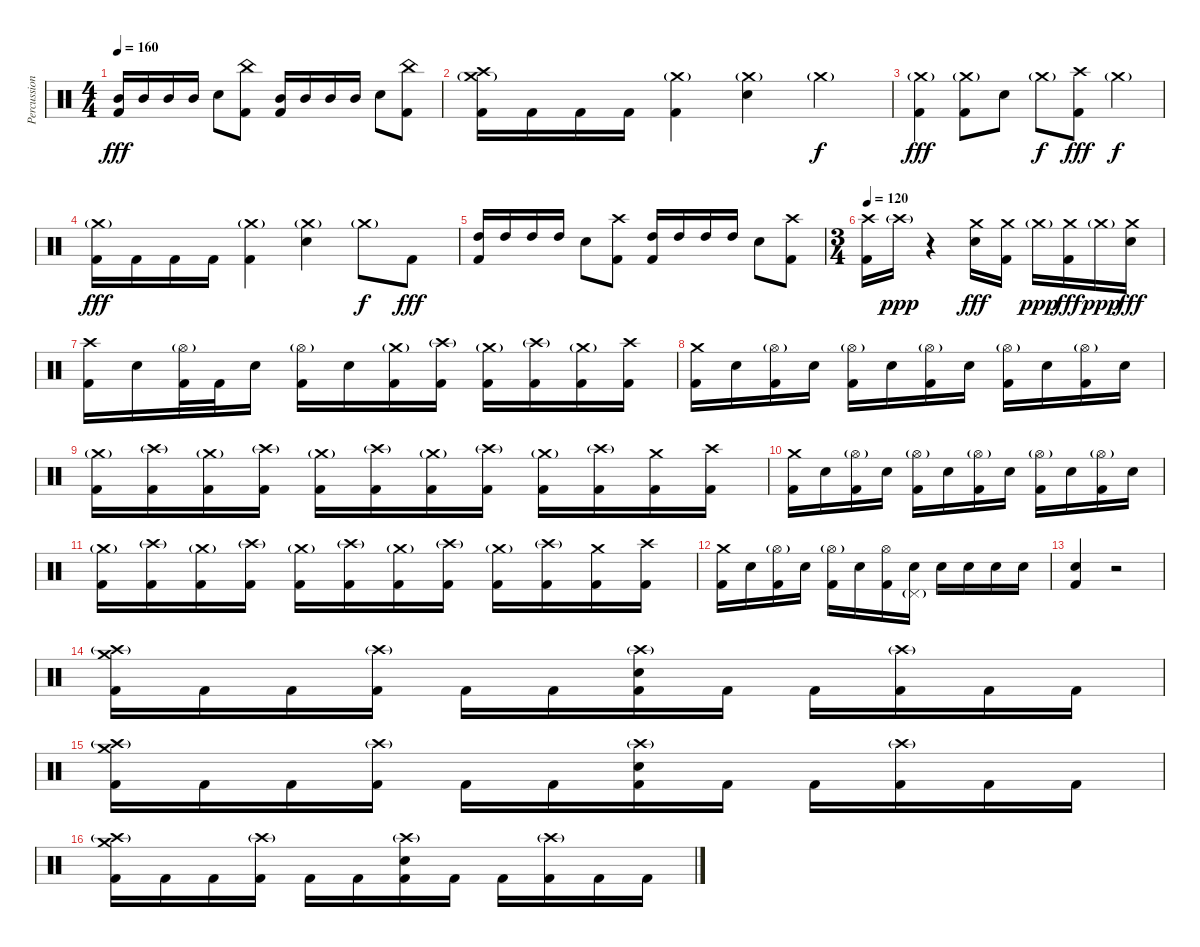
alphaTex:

\track ("Percussion" "Percussion") {instrument percussion}
\staff {score}
\articulation defaults
\ts (4 4)
\tempo 160
\clef neutral
\ks c
("Mid Tom (hit)" "Kick (hit) 2").16{dy fff} "Mid Tom (hit)".16 "Mid Tom (hit)".16 "Mid Tom (hit)".16 "Electric Snare (hit)".8 ("China (hit)" "Kick (hit) 2").8 ("Mid Tom (hit)" "Kick (hit) 2").16 "Mid Tom (hit)".16 "Mid Tom (hit)".16 "Mid Tom (hit)".16 "Electric Snare (hit)".8 ("China (hit)" "Kick (hit) 2").8 |
("Crash medium (hit)"{g} "Crash high (hit)" "Kick (hit) 2").16 "Kick (hit) 2".16 "Kick (hit) 2".16 "Kick (hit) 2".16 ("Crash medium (hit)"{g} "Kick (hit) 2").4 ("Crash medium (hit)"{g} "Electric Snare (hit)").4 "Crash medium (hit)"{g}.4{dy f} |
("Crash medium (hit)"{g} "Kick (hit) 2").4{dy fff} ("Crash medium (hit)"{g} "Kick (hit) 2").8 "Electric Snare (hit)".8 "Crash medium (hit)"{g}.8{dy f} ("Crash high (hit)" "Kick (hit) 2").8{dy fff} "Crash medium (hit)"{g}.4{dy f} |
("Crash medium (hit)"{g} "Kick (hit) 2").16{dy fff} "Kick (hit) 2".16 "Kick (hit) 2".16 "Kick (hit) 2".16 ("Crash medium (hit)"{g} "Kick (hit) 2").4 ("Crash medium (hit)"{g} "Electric Snare (hit)").4 "Crash medium (hit)"{g}.8{dy f} "Kick (hit) 2".8{dy fff} |
("High Tom (hit)" "Kick (hit) 2").16 "High Tom (hit)".16 "High Tom (hit)".16 "High Tom (hit)".16 "Electric Snare (hit)".8 ("Crash high (hit)" "Kick (hit) 2").8 ("High Tom (hit)" "Kick (hit) 2").16 "High Tom (hit)".16 "High Tom (hit)".16 "High Tom (hit)".16 "Electric Snare (hit)".8 ("Crash high (hit)" "Kick (hit) 2").8 |
\ts (3 4)
\tempo 120
("Crash high (hit)" "Kick (hit) 2").16 "Crash high (hit)"{g}.16{dy ppp} r.4 ("Crash medium (hit)" "Electric Snare (hit)").16{dy fff} ("Crash medium (hit)" "Kick (hit) 2").16 "Crash medium (hit)"{g}.16{dy ppp} ("Crash medium (hit)" "Kick (hit) 2").16{dy fff} "Crash medium (hit)"{g}.16{dy ppp} ("Crash medium (hit)" "Electric Snare (hit)").16{dy fff} |
("Crash high (hit)" "Kick (hit) 2").16 "Electric Snare (hit)".16 ("Hi-Hat (open)"{g} "Kick (hit) 2").32 "Kick (hit) 2".32 "Electric Snare (hit)".16 ("Hi-Hat (open)"{g} "Kick (hit) 2").16 "Electric Snare (hit)".16 ("Crash medium (hit)"{g} "Kick (hit) 2").16 ("Crash high (hit)"{g} "Kick (hit) 2").16 ("Crash medium (hit)"{g} "Kick (hit) 2").16 ("Crash high (hit)"{g} "Kick (hit) 2").16 ("Crash medium (hit)"{g} "Kick (hit) 2").16 ("Crash high (hit)" "Kick (hit) 2").16 |
("Crash medium (hit)" "Kick (hit) 2").16 "Electric Snare (hit)".16 ("Hi-Hat (open)"{g} "Kick (hit) 2").16 "Electric Snare (hit)".16 ("Hi-Hat (open)"{g} "Kick (hit) 2").16 "Electric Snare (hit)".16 ("Hi-Hat (open)"{g} "Kick (hit) 2").16 "Electric Snare (hit)".16 ("Hi-Hat (open)"{g} "Kick (hit) 2").16 "Electric Snare (hit)".16 ("Hi-Hat (open)"{g} "Kick (hit) 2").16 "Electric Snare (hit)".16 |
("Crash medium (hit)"{g} "Kick (hit) 2").16 ("Crash high (hit)"{g} "Kick (hit) 2").16 ("Crash medium (hit)"{g} "Kick (hit) 2").16 ("Crash high (hit)"{g} "Kick (hit) 2").16 ("Crash medium (hit)"{g} "Kick (hit) 2").16 ("Crash high (hit)"{g} "Kick (hit) 2").16 ("Crash medium (hit)"{g} "Kick (hit) 2").16 ("Crash high (hit)"{g} "Kick (hit) 2").16 ("Crash medium (hit)"{g} "Kick (hit) 2").16 ("Crash high (hit)"{g} "Kick (hit) 2").16 ("Crash medium (hit)" "Kick (hit) 2").16 ("Crash high (hit)" "Kick (hit) 2").16 |
("Crash medium (hit)" "Kick (hit) 2").16 "Electric Snare (hit)".16 ("Hi-Hat (open)"{g} "Kick (hit) 2").16 "Electric Snare (hit)".16 ("Hi-Hat (open)"{g} "Kick (hit) 2").16 "Electric Snare (hit)".16 ("Hi-Hat (open)"{g} "Kick (hit) 2").16 "Electric Snare (hit)".16 ("Hi-Hat (open)"{g} "Kick (hit) 2").16 "Electric Snare (hit)".16 ("Hi-Hat (open)"{g} "Kick (hit) 2").16 "Electric Snare (hit)".16 |
("Crash medium (hit)"{g} "Kick (hit) 2").16 ("Crash high (hit)"{g} "Kick (hit) 2").16 ("Crash medium (hit)"{g} "Kick (hit) 2").16 ("Crash high (hit)"{g} "Kick (hit) 2").16 ("Crash medium (hit)"{g} "Kick (hit) 2").16 ("Crash high (hit)"{g} "Kick (hit) 2").16 ("Crash medium (hit)"{g} "Kick (hit) 2").16 ("Crash high (hit)"{g} "Kick (hit) 2").16 ("Crash medium (hit)"{g} "Kick (hit) 2").16 ("Crash high (hit)"{g} "Kick (hit) 2").16 ("Crash medium (hit)" "Kick (hit) 2").16 ("Crash high (hit)" "Kick (hit) 2").16 |
("Crash medium (hit)" "Kick (hit) 2").16 "Electric Snare (hit)".16 ("Hi-Hat (open)"{g} "Kick (hit) 2").16 "Electric Snare (hit)".16 ("Hi-Hat (open)"{g} "Kick (hit) 2").16 "Electric Snare (hit)".16 ("Hi-Hat (open)" "Kick (hit) 2").16 ("Electric Snare (hit)" "Pedal Hi-Hat (hit)"{g}).16 "Electric Snare (hit)".16 "Electric Snare (hit)".16 "Electric Snare (hit)".16 "Electric Snare (hit)".16 |
("Electric Snare (hit)" "Kick (hit) 2").4 r.2 |
("Crash high (hit)"{g} "Crash medium (hit)" "Kick (hit) 2").16 "Kick (hit) 2".16 "Kick (hit) 2".16 ("Crash high (hit)"{g} "Kick (hit) 2").16 "Kick (hit) 2".16 "Kick (hit) 2".16 ("Crash high (hit)"{g} "Electric Snare (hit)" "Kick (hit) 2").16 "Kick (hit) 2".16 "Kick (hit) 2".16 ("Crash high (hit)"{g} "Kick (hit) 2").16 "Kick (hit) 2".16 "Kick (hit) 2".16 |
("Crash high (hit)"{g} "Crash medium (hit)" "Kick (hit) 2").16 "Kick (hit) 2".16 "Kick (hit) 2".16 ("Crash high (hit)"{g} "Kick (hit) 2").16 "Kick (hit) 2".16 "Kick (hit) 2".16 ("Crash high (hit)"{g} "Electric Snare (hit)" "Kick (hit) 2").16 "Kick (hit) 2".16 "Kick (hit) 2".16 ("Crash high (hit)"{g} "Kick (hit) 2").16 "Kick (hit) 2".16 "Kick (hit) 2".16 |
("Crash high (hit)"{g} "Crash medium (hit)" "Kick (hit) 2").16 "Kick (hit) 2".16 "Kick (hit) 2".16 ("Crash high (hit)"{g} "Kick (hit) 2").16 "Kick (hit) 2".16 "Kick (hit) 2".16 ("Crash high (hit)"{g} "Electric Snare (hit)" "Kick (hit) 2").16 "Kick (hit) 2".16 "Kick (hit) 2".16 ("Crash high (hit)"{g} "Kick (hit) 2").16 "Kick (hit) 2".16 "Kick (hit) 2".16
